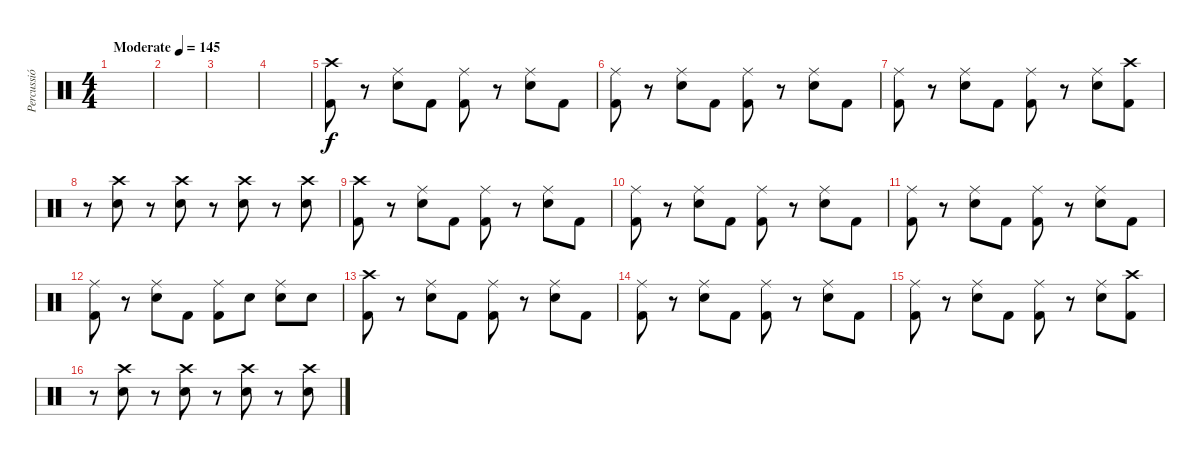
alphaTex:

\track ("Percussió" "Percussió") {instrument percussion}
\staff {score}
\articulation defaults
\ts (4 4)
\tempo (145 "Moderate")
\clef neutral
\ks c
|
|
|
|
("Crash high (hit)" "Kick (hit) 2").8 r.8 ("Ride (middle)" "Snare (hit) 2").8 "Kick (hit) 2".8 ("Ride (middle)" "Kick (hit) 2").8 r.8 ("Ride (middle)" "Snare (hit) 2").8 "Kick (hit) 2".8 |
("Ride (middle)" "Kick (hit) 2").8 r.8 ("Ride (middle)" "Snare (hit) 2").8 "Kick (hit) 2".8 ("Ride (middle)" "Kick (hit) 2").8 r.8 ("Ride (middle)" "Snare (hit) 2").8 "Kick (hit) 2".8 |
("Ride (middle)" "Kick (hit) 2").8 r.8 ("Ride (middle)" "Snare (hit) 2").8 "Kick (hit) 2".8 ("Ride (middle)" "Kick (hit) 2").8 r.8 ("Ride (middle)" "Snare (hit) 2").8 ("Crash high (hit)" "Kick (hit) 2").8 |
r.8 ("Crash high (hit)" "Snare (hit) 2").8 r.8 ("Crash high (hit)" "Snare (hit) 2").8 r.8 ("Crash high (hit)" "Snare (hit) 2").8 r.8 ("Crash high (hit)" "Snare (hit) 2").8 |
("Crash high (hit)" "Kick (hit) 2").8 r.8 ("Ride (middle)" "Snare (hit) 2").8 "Kick (hit) 2".8 ("Ride (middle)" "Kick (hit) 2").8 r.8 ("Ride (middle)" "Snare (hit) 2").8 "Kick (hit) 2".8 |
("Ride (middle)" "Kick (hit) 2").8 r.8 ("Ride (middle)" "Snare (hit) 2").8 "Kick (hit) 2".8 ("Ride (middle)" "Kick (hit) 2").8 r.8 ("Ride (middle)" "Snare (hit) 2").8 "Kick (hit) 2".8 |
("Ride (middle)" "Kick (hit) 2").8 r.8 ("Ride (middle)" "Snare (hit) 2").8 "Kick (hit) 2".8 ("Ride (middle)" "Kick (hit) 2").8 r.8 ("Ride (middle)" "Snare (hit) 2").8 "Kick (hit) 2".8 |
("Ride (middle)" "Kick (hit) 2").8 r.8 ("Ride (middle)" "Snare (hit) 2").8 "Kick (hit) 2".8 ("Ride (middle)" "Kick (hit) 2").8 "Snare (hit) 2".8 ("Ride (middle)" "Snare (hit) 2").8 "Snare (hit) 2".8 |
("Crash high (hit)" "Kick (hit) 2").8 r.8 ("Ride (middle)" "Snare (hit) 2").8 "Kick (hit) 2".8 ("Ride (middle)" "Kick (hit) 2").8 r.8 ("Ride (middle)" "Snare (hit) 2").8 "Kick (hit) 2".8 |
("Ride (middle)" "Kick (hit) 2").8 r.8 ("Ride (middle)" "Snare (hit) 2").8 "Kick (hit) 2".8 ("Ride (middle)" "Kick (hit) 2").8 r.8 ("Ride (middle)" "Snare (hit) 2").8 "Kick (hit) 2".8 |
("Ride (middle)" "Kick (hit) 2").8 r.8 ("Ride (middle)" "Snare (hit) 2").8 "Kick (hit) 2".8 ("Ride (middle)" "Kick (hit) 2").8 r.8 ("Ride (middle)" "Snare (hit) 2").8 ("Crash high (hit)" "Kick (hit) 2").8 |
r.8 ("Crash high (hit)" "Snare (hit) 2").8 r.8 ("Crash high (hit)" "Snare (hit) 2").8 r.8 ("Crash high (hit)" "Snare (hit) 2").8 r.8 ("Crash high (hit)" "Snare (hit) 2").8
